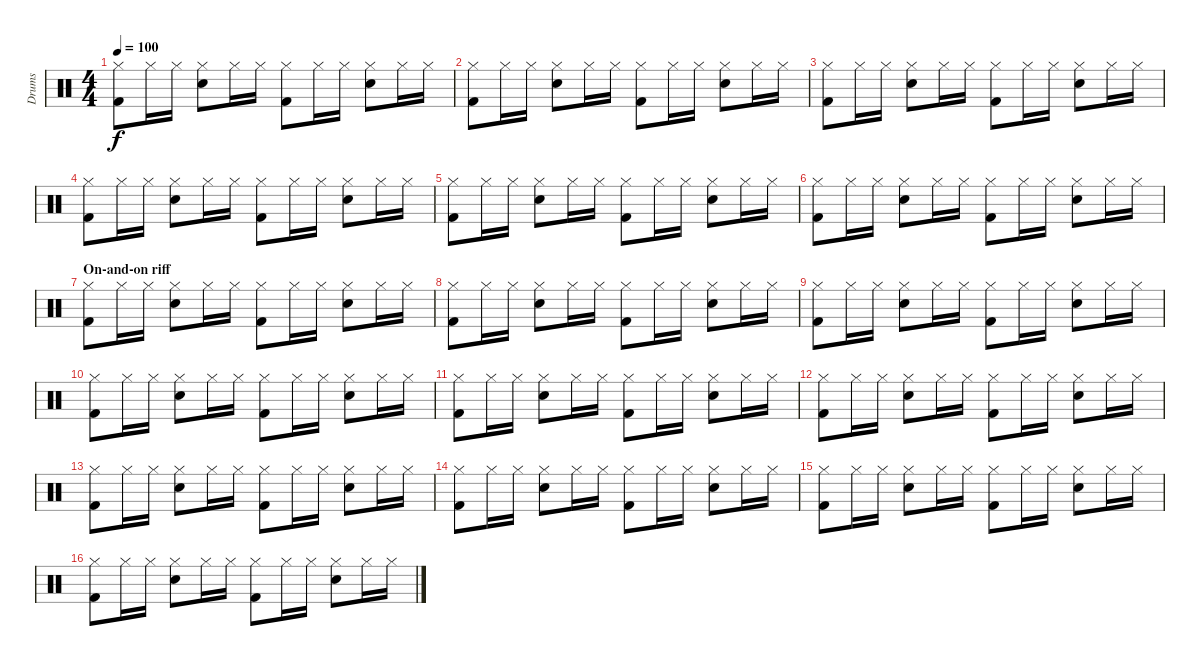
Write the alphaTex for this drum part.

\track ("Drums" "Drums") {instrument percussion}
\staff {score}
\articulation defaults
\ts (4 4)
\tempo 100
\clef neutral
\ks c
("Hi-Hat (closed)" "Kick (hit) 2").8{dy f} "Hi-Hat (closed)".16 "Hi-Hat (closed)".16 ("Hi-Hat (closed)" "Snare (hit) 2").8 "Hi-Hat (closed)".16 "Hi-Hat (closed)".16 ("Hi-Hat (closed)" "Kick (hit) 2").8 "Hi-Hat (closed)".16 "Hi-Hat (closed)".16 ("Hi-Hat (closed)" "Snare (hit) 2").8 "Hi-Hat (closed)".16 "Hi-Hat (closed)".16 |
("Hi-Hat (closed)" "Kick (hit) 2").8 "Hi-Hat (closed)".16 "Hi-Hat (closed)".16 ("Hi-Hat (closed)" "Snare (hit) 2").8 "Hi-Hat (closed)".16 "Hi-Hat (closed)".16 ("Hi-Hat (closed)" "Kick (hit) 2").8 "Hi-Hat (closed)".16 "Hi-Hat (closed)".16 ("Hi-Hat (closed)" "Snare (hit) 2").8 "Hi-Hat (closed)".16 "Hi-Hat (closed)".16 |
("Hi-Hat (closed)" "Kick (hit) 2").8 "Hi-Hat (closed)".16 "Hi-Hat (closed)".16 ("Hi-Hat (closed)" "Snare (hit) 2").8 "Hi-Hat (closed)".16 "Hi-Hat (closed)".16 ("Hi-Hat (closed)" "Kick (hit) 2").8 "Hi-Hat (closed)".16 "Hi-Hat (closed)".16 ("Hi-Hat (closed)" "Snare (hit) 2").8 "Hi-Hat (closed)".16 "Hi-Hat (closed)".16 |
("Hi-Hat (closed)" "Kick (hit) 2").8 "Hi-Hat (closed)".16 "Hi-Hat (closed)".16 ("Hi-Hat (closed)" "Snare (hit) 2").8 "Hi-Hat (closed)".16 "Hi-Hat (closed)".16 ("Hi-Hat (closed)" "Kick (hit) 2").8 "Hi-Hat (closed)".16 "Hi-Hat (closed)".16 ("Hi-Hat (closed)" "Snare (hit) 2").8 "Hi-Hat (closed)".16 "Hi-Hat (closed)".16 |
("Hi-Hat (closed)" "Kick (hit) 2").8 "Hi-Hat (closed)".16 "Hi-Hat (closed)".16 ("Hi-Hat (closed)" "Snare (hit) 2").8 "Hi-Hat (closed)".16 "Hi-Hat (closed)".16 ("Hi-Hat (closed)" "Kick (hit) 2").8 "Hi-Hat (closed)".16 "Hi-Hat (closed)".16 ("Hi-Hat (closed)" "Snare (hit) 2").8 "Hi-Hat (closed)".16 "Hi-Hat (closed)".16 |
("Hi-Hat (closed)" "Kick (hit) 2").8 "Hi-Hat (closed)".16 "Hi-Hat (closed)".16 ("Hi-Hat (closed)" "Snare (hit) 2").8 "Hi-Hat (closed)".16 "Hi-Hat (closed)".16 ("Hi-Hat (closed)" "Kick (hit) 2").8 "Hi-Hat (closed)".16 "Hi-Hat (closed)".16 ("Hi-Hat (closed)" "Snare (hit) 2").8 "Hi-Hat (closed)".16 "Hi-Hat (closed)".16 |
\section ("" "On-and-on riff")
("Hi-Hat (closed)" "Kick (hit) 2").8 "Hi-Hat (closed)".16 "Hi-Hat (closed)".16 ("Hi-Hat (closed)" "Snare (hit) 2").8 "Hi-Hat (closed)".16 "Hi-Hat (closed)".16 ("Hi-Hat (closed)" "Kick (hit) 2").8 "Hi-Hat (closed)".16 "Hi-Hat (closed)".16 ("Hi-Hat (closed)" "Snare (hit) 2").8 "Hi-Hat (closed)".16 "Hi-Hat (closed)".16 |
("Hi-Hat (closed)" "Kick (hit) 2").8 "Hi-Hat (closed)".16 "Hi-Hat (closed)".16 ("Hi-Hat (closed)" "Snare (hit) 2").8 "Hi-Hat (closed)".16 "Hi-Hat (closed)".16 ("Hi-Hat (closed)" "Kick (hit) 2").8 "Hi-Hat (closed)".16 "Hi-Hat (closed)".16 ("Hi-Hat (closed)" "Snare (hit) 2").8 "Hi-Hat (closed)".16 "Hi-Hat (closed)".16 |
("Hi-Hat (closed)" "Kick (hit) 2").8 "Hi-Hat (closed)".16 "Hi-Hat (closed)".16 ("Hi-Hat (closed)" "Snare (hit) 2").8 "Hi-Hat (closed)".16 "Hi-Hat (closed)".16 ("Hi-Hat (closed)" "Kick (hit) 2").8 "Hi-Hat (closed)".16 "Hi-Hat (closed)".16 ("Hi-Hat (closed)" "Snare (hit) 2").8 "Hi-Hat (closed)".16 "Hi-Hat (closed)".16 |
("Hi-Hat (closed)" "Kick (hit) 2").8 "Hi-Hat (closed)".16 "Hi-Hat (closed)".16 ("Hi-Hat (closed)" "Snare (hit) 2").8 "Hi-Hat (closed)".16 "Hi-Hat (closed)".16 ("Hi-Hat (closed)" "Kick (hit) 2").8 "Hi-Hat (closed)".16 "Hi-Hat (closed)".16 ("Hi-Hat (closed)" "Snare (hit) 2").8 "Hi-Hat (closed)".16 "Hi-Hat (closed)".16 |
("Hi-Hat (closed)" "Kick (hit) 2").8 "Hi-Hat (closed)".16 "Hi-Hat (closed)".16 ("Hi-Hat (closed)" "Snare (hit) 2").8 "Hi-Hat (closed)".16 "Hi-Hat (closed)".16 ("Hi-Hat (closed)" "Kick (hit) 2").8 "Hi-Hat (closed)".16 "Hi-Hat (closed)".16 ("Hi-Hat (closed)" "Snare (hit) 2").8 "Hi-Hat (closed)".16 "Hi-Hat (closed)".16 |
("Hi-Hat (closed)" "Kick (hit) 2").8 "Hi-Hat (closed)".16 "Hi-Hat (closed)".16 ("Hi-Hat (closed)" "Snare (hit) 2").8 "Hi-Hat (closed)".16 "Hi-Hat (closed)".16 ("Hi-Hat (closed)" "Kick (hit) 2").8 "Hi-Hat (closed)".16 "Hi-Hat (closed)".16 ("Hi-Hat (closed)" "Snare (hit) 2").8 "Hi-Hat (closed)".16 "Hi-Hat (closed)".16 |
("Hi-Hat (closed)" "Kick (hit) 2").8 "Hi-Hat (closed)".16 "Hi-Hat (closed)".16 ("Hi-Hat (closed)" "Snare (hit) 2").8 "Hi-Hat (closed)".16 "Hi-Hat (closed)".16 ("Hi-Hat (closed)" "Kick (hit) 2").8 "Hi-Hat (closed)".16 "Hi-Hat (closed)".16 ("Hi-Hat (closed)" "Snare (hit) 2").8 "Hi-Hat (closed)".16 "Hi-Hat (closed)".16 |
("Hi-Hat (closed)" "Kick (hit) 2").8 "Hi-Hat (closed)".16 "Hi-Hat (closed)".16 ("Hi-Hat (closed)" "Snare (hit) 2").8 "Hi-Hat (closed)".16 "Hi-Hat (closed)".16 ("Hi-Hat (closed)" "Kick (hit) 2").8 "Hi-Hat (closed)".16 "Hi-Hat (closed)".16 ("Hi-Hat (closed)" "Snare (hit) 2").8 "Hi-Hat (closed)".16 "Hi-Hat (closed)".16 |
("Hi-Hat (closed)" "Kick (hit) 2").8 "Hi-Hat (closed)".16 "Hi-Hat (closed)".16 ("Hi-Hat (closed)" "Snare (hit) 2").8 "Hi-Hat (closed)".16 "Hi-Hat (closed)".16 ("Hi-Hat (closed)" "Kick (hit) 2").8 "Hi-Hat (closed)".16 "Hi-Hat (closed)".16 ("Hi-Hat (closed)" "Snare (hit) 2").8 "Hi-Hat (closed)".16 "Hi-Hat (closed)".16 |
("Hi-Hat (closed)" "Kick (hit) 2").8 "Hi-Hat (closed)".16 "Hi-Hat (closed)".16 ("Hi-Hat (closed)" "Snare (hit) 2").8 "Hi-Hat (closed)".16 "Hi-Hat (closed)".16 ("Hi-Hat (closed)" "Kick (hit) 2").8 "Hi-Hat (closed)".16 "Hi-Hat (closed)".16 ("Hi-Hat (closed)" "Snare (hit) 2").8 "Hi-Hat (closed)".16 "Hi-Hat (closed)".16
